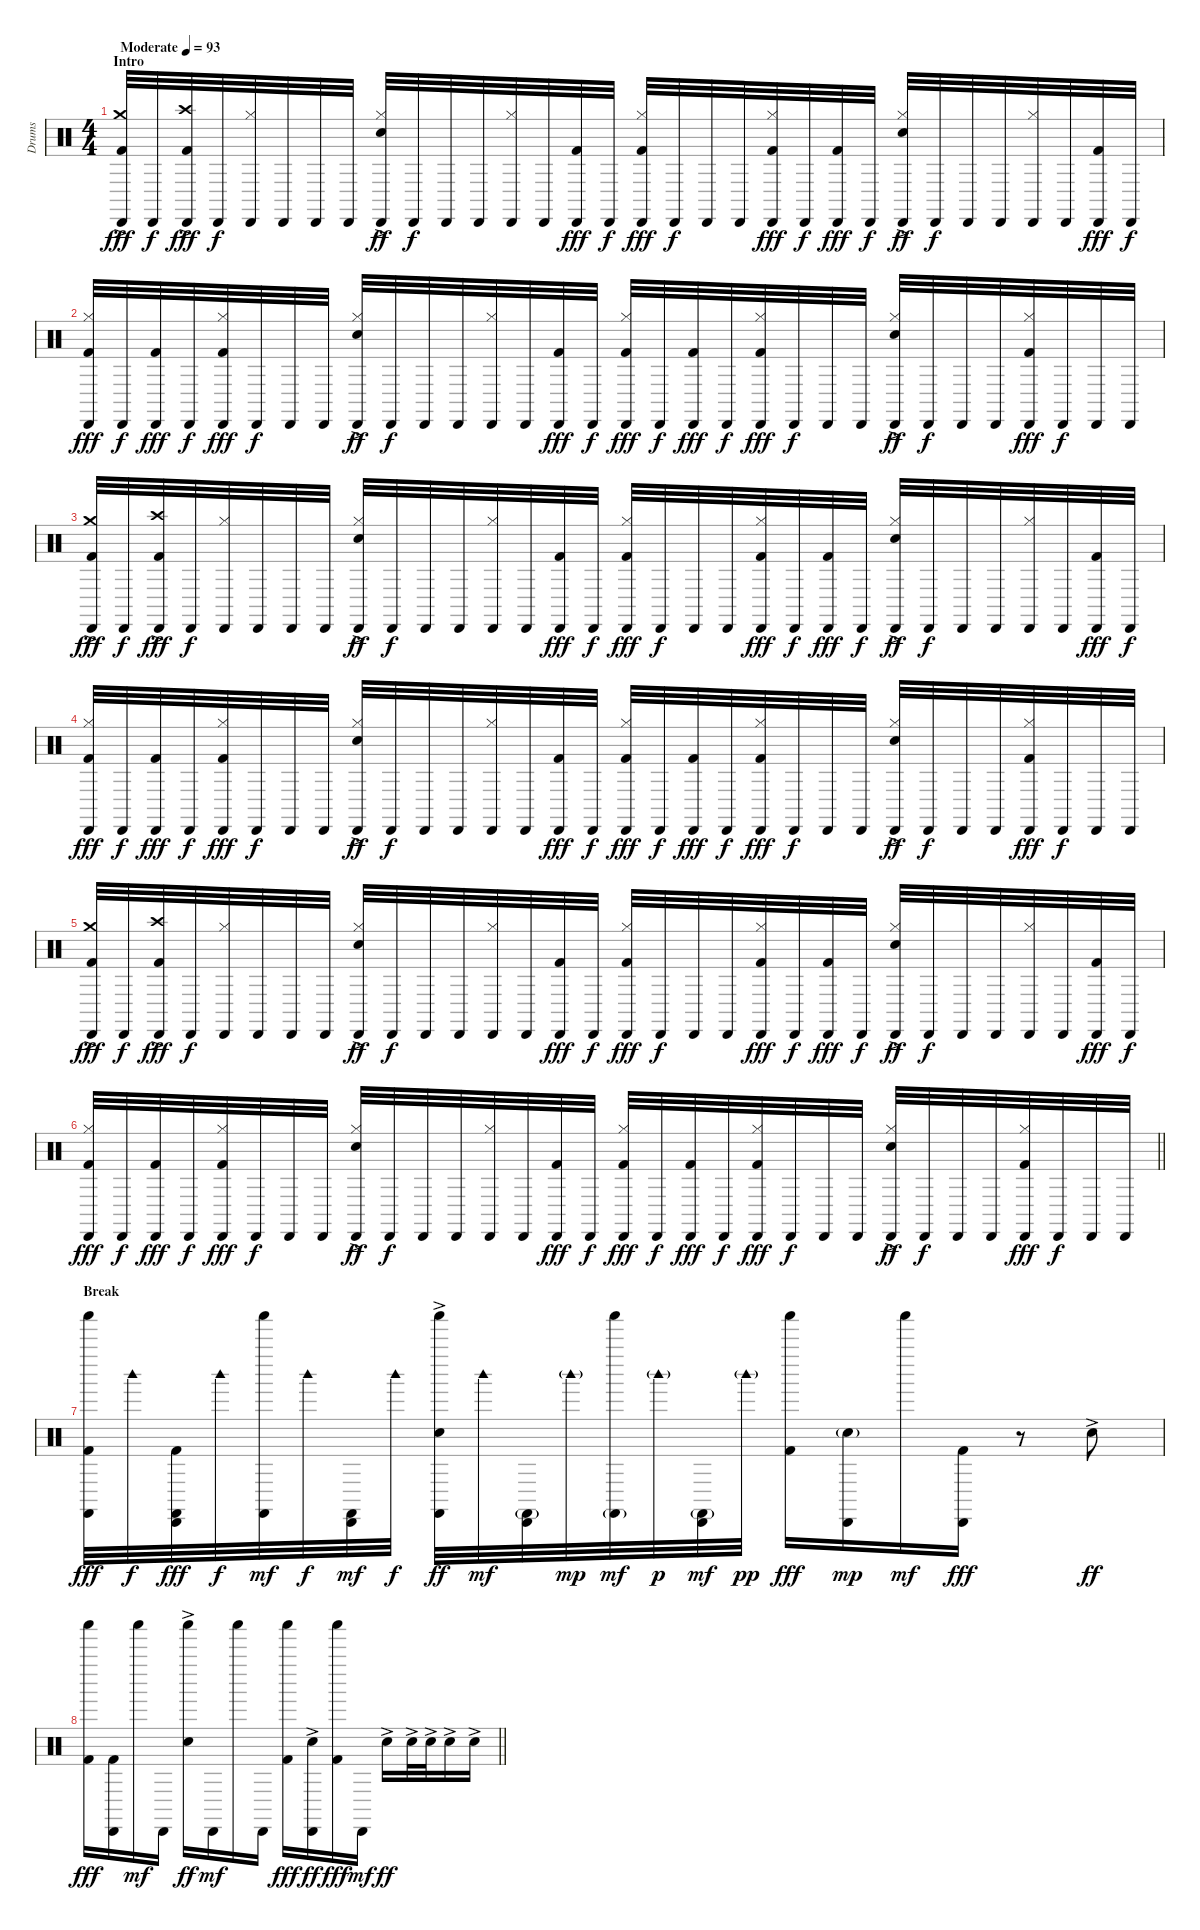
\track ("Drums" "Drums") {instrument percussion}
\staff {score}
\articulation defaults
\ts (4 4)
\section ("" "Intro")
\tempo (93 "Moderate")
\clef neutral
\ks c
("Crash medium (hit)"{ac} "Cabasa (hit)" "Kick (hit) 2").32{dy fff} "Cabasa (hit)".32{dy f} ("Crash high (hit)"{ac} "Cabasa (hit)" "Kick (hit) 2").32{dy fff} "Cabasa (hit)".32{dy f} ("Cabasa (hit)" "Hi-Hat (closed)").32 "Cabasa (hit)".32 "Cabasa (hit)".32 "Cabasa (hit)".32 ("Cabasa (hit)" "Hi-Hat (closed)" "Electric Snare (hit)"{ac}).32{dy ff} "Cabasa (hit)".32{dy f} "Cabasa (hit)".32 "Cabasa (hit)".32 ("Cabasa (hit)" "Hi-Hat (closed)").32 "Cabasa (hit)".32 ("Cabasa (hit)" "Kick (hit) 2").32{dy fff} "Cabasa (hit)".32{dy f} ("Cabasa (hit)" "Hi-Hat (closed)" "Kick (hit) 2").32{dy fff} "Cabasa (hit)".32{dy f} "Cabasa (hit)".32 "Cabasa (hit)".32 ("Cabasa (hit)" "Hi-Hat (closed)" "Kick (hit) 2").32{dy fff} "Cabasa (hit)".32{dy f} ("Cabasa (hit)" "Kick (hit) 2").32{dy fff} "Cabasa (hit)".32{dy f} ("Cabasa (hit)" "Hi-Hat (closed)" "Electric Snare (hit)"{ac}).32{dy ff} "Cabasa (hit)".32{dy f} "Cabasa (hit)".32 "Cabasa (hit)".32 ("Cabasa (hit)" "Hi-Hat (closed)").32 "Cabasa (hit)".32 ("Cabasa (hit)" "Kick (hit) 2").32{dy fff} "Cabasa (hit)".32{dy f} |
("Cabasa (hit)" "Hi-Hat (closed)" "Kick (hit) 2").32{dy fff} "Cabasa (hit)".32{dy f} ("Cabasa (hit)" "Kick (hit) 2").32{dy fff} "Cabasa (hit)".32{dy f} ("Cabasa (hit)" "Hi-Hat (closed)" "Kick (hit) 2").32{dy fff} "Cabasa (hit)".32{dy f} "Cabasa (hit)".32 "Cabasa (hit)".32 ("Cabasa (hit)" "Hi-Hat (closed)" "Electric Snare (hit)"{ac}).32{dy ff} "Cabasa (hit)".32{dy f} "Cabasa (hit)".32 "Cabasa (hit)".32 ("Cabasa (hit)" "Hi-Hat (closed)").32 "Cabasa (hit)".32 ("Cabasa (hit)" "Kick (hit) 2").32{dy fff} "Cabasa (hit)".32{dy f} ("Cabasa (hit)" "Hi-Hat (closed)" "Kick (hit) 2").32{dy fff} "Cabasa (hit)".32{dy f} ("Cabasa (hit)" "Kick (hit) 2").32{dy fff} "Cabasa (hit)".32{dy f} ("Cabasa (hit)" "Hi-Hat (closed)" "Kick (hit) 2").32{dy fff} "Cabasa (hit)".32{dy f} "Cabasa (hit)".32 "Cabasa (hit)".32 ("Cabasa (hit)" "Hi-Hat (closed)" "Electric Snare (hit)"{ac}).32{dy ff} "Cabasa (hit)".32{dy f} "Cabasa (hit)".32 "Cabasa (hit)".32 ("Cabasa (hit)" "Hi-Hat (closed)" "Kick (hit) 2").32{dy fff} "Cabasa (hit)".32{dy f} "Cabasa (hit)".32 "Cabasa (hit)".32 |
("Crash medium (hit)"{ac} "Cabasa (hit)" "Kick (hit) 2").32{dy fff} "Cabasa (hit)".32{dy f} ("Crash high (hit)"{ac} "Cabasa (hit)" "Kick (hit) 2").32{dy fff} "Cabasa (hit)".32{dy f} ("Cabasa (hit)" "Hi-Hat (closed)").32 "Cabasa (hit)".32 "Cabasa (hit)".32 "Cabasa (hit)".32 ("Cabasa (hit)" "Hi-Hat (closed)" "Electric Snare (hit)"{ac}).32{dy ff} "Cabasa (hit)".32{dy f} "Cabasa (hit)".32 "Cabasa (hit)".32 ("Cabasa (hit)" "Hi-Hat (closed)").32 "Cabasa (hit)".32 ("Cabasa (hit)" "Kick (hit) 2").32{dy fff} "Cabasa (hit)".32{dy f} ("Cabasa (hit)" "Hi-Hat (closed)" "Kick (hit) 2").32{dy fff} "Cabasa (hit)".32{dy f} "Cabasa (hit)".32 "Cabasa (hit)".32 ("Cabasa (hit)" "Hi-Hat (closed)" "Kick (hit) 2").32{dy fff} "Cabasa (hit)".32{dy f} ("Cabasa (hit)" "Kick (hit) 2").32{dy fff} "Cabasa (hit)".32{dy f} ("Cabasa (hit)" "Hi-Hat (closed)" "Electric Snare (hit)"{ac}).32{dy ff} "Cabasa (hit)".32{dy f} "Cabasa (hit)".32 "Cabasa (hit)".32 ("Cabasa (hit)" "Hi-Hat (closed)").32 "Cabasa (hit)".32 ("Cabasa (hit)" "Kick (hit) 2").32{dy fff} "Cabasa (hit)".32{dy f} |
("Cabasa (hit)" "Hi-Hat (closed)" "Kick (hit) 2").32{dy fff} "Cabasa (hit)".32{dy f} ("Cabasa (hit)" "Kick (hit) 2").32{dy fff} "Cabasa (hit)".32{dy f} ("Cabasa (hit)" "Hi-Hat (closed)" "Kick (hit) 2").32{dy fff} "Cabasa (hit)".32{dy f} "Cabasa (hit)".32 "Cabasa (hit)".32 ("Cabasa (hit)" "Hi-Hat (closed)" "Electric Snare (hit)"{ac}).32{dy ff} "Cabasa (hit)".32{dy f} "Cabasa (hit)".32 "Cabasa (hit)".32 ("Cabasa (hit)" "Hi-Hat (closed)").32 "Cabasa (hit)".32 ("Cabasa (hit)" "Kick (hit) 2").32{dy fff} "Cabasa (hit)".32{dy f} ("Cabasa (hit)" "Hi-Hat (closed)" "Kick (hit) 2").32{dy fff} "Cabasa (hit)".32{dy f} ("Cabasa (hit)" "Kick (hit) 2").32{dy fff} "Cabasa (hit)".32{dy f} ("Cabasa (hit)" "Hi-Hat (closed)" "Kick (hit) 2").32{dy fff} "Cabasa (hit)".32{dy f} "Cabasa (hit)".32 "Cabasa (hit)".32 ("Cabasa (hit)" "Hi-Hat (closed)" "Electric Snare (hit)"{ac}).32{dy ff} "Cabasa (hit)".32{dy f} "Cabasa (hit)".32 "Cabasa (hit)".32 ("Cabasa (hit)" "Hi-Hat (closed)" "Kick (hit) 2").32{dy fff} "Cabasa (hit)".32{dy f} "Cabasa (hit)".32 "Cabasa (hit)".32 |
("Crash medium (hit)"{ac} "Cabasa (hit)" "Kick (hit) 2").32{dy fff} "Cabasa (hit)".32{dy f} ("Crash high (hit)"{ac} "Cabasa (hit)" "Kick (hit) 2").32{dy fff} "Cabasa (hit)".32{dy f} ("Cabasa (hit)" "Hi-Hat (closed)").32 "Cabasa (hit)".32 "Cabasa (hit)".32 "Cabasa (hit)".32 ("Cabasa (hit)" "Hi-Hat (closed)" "Electric Snare (hit)"{ac}).32{dy ff} "Cabasa (hit)".32{dy f} "Cabasa (hit)".32 "Cabasa (hit)".32 ("Cabasa (hit)" "Hi-Hat (closed)").32 "Cabasa (hit)".32 ("Cabasa (hit)" "Kick (hit) 2").32{dy fff} "Cabasa (hit)".32{dy f} ("Cabasa (hit)" "Hi-Hat (closed)" "Kick (hit) 2").32{dy fff} "Cabasa (hit)".32{dy f} "Cabasa (hit)".32 "Cabasa (hit)".32 ("Cabasa (hit)" "Hi-Hat (closed)" "Kick (hit) 2").32{dy fff} "Cabasa (hit)".32{dy f} ("Cabasa (hit)" "Kick (hit) 2").32{dy fff} "Cabasa (hit)".32{dy f} ("Cabasa (hit)" "Hi-Hat (closed)" "Electric Snare (hit)"{ac}).32{dy ff} "Cabasa (hit)".32{dy f} "Cabasa (hit)".32 "Cabasa (hit)".32 ("Cabasa (hit)" "Hi-Hat (closed)").32 "Cabasa (hit)".32 ("Cabasa (hit)" "Kick (hit) 2").32{dy fff} "Cabasa (hit)".32{dy f} |
\barLineRight lightlight
("Cabasa (hit)" "Hi-Hat (closed)" "Kick (hit) 2").32{dy fff} "Cabasa (hit)".32{dy f} ("Cabasa (hit)" "Kick (hit) 2").32{dy fff} "Cabasa (hit)".32{dy f} ("Cabasa (hit)" "Hi-Hat (closed)" "Kick (hit) 2").32{dy fff} "Cabasa (hit)".32{dy f} "Cabasa (hit)".32 "Cabasa (hit)".32 ("Cabasa (hit)" "Hi-Hat (closed)" "Electric Snare (hit)"{ac}).32{dy ff} "Cabasa (hit)".32{dy f} "Cabasa (hit)".32 "Cabasa (hit)".32 ("Cabasa (hit)" "Hi-Hat (closed)").32 "Cabasa (hit)".32 ("Cabasa (hit)" "Kick (hit) 2").32{dy fff} "Cabasa (hit)".32{dy f} ("Cabasa (hit)" "Hi-Hat (closed)" "Kick (hit) 2").32{dy fff} "Cabasa (hit)".32{dy f} ("Cabasa (hit)" "Kick (hit) 2").32{dy fff} "Cabasa (hit)".32{dy f} ("Cabasa (hit)" "Hi-Hat (closed)" "Kick (hit) 2").32{dy fff} "Cabasa (hit)".32{dy f} "Cabasa (hit)".32 "Cabasa (hit)".32 ("Cabasa (hit)" "Hi-Hat (closed)" "Electric Snare (hit)"{ac}).32{dy ff} "Cabasa (hit)".32{dy f} "Cabasa (hit)".32 "Cabasa (hit)".32 ("Cabasa (hit)" "Hi-Hat (closed)" "Kick (hit) 2").32{dy fff} "Cabasa (hit)".32{dy f} "Cabasa (hit)".32 "Cabasa (hit)".32 |
\section ("" "Break")
("Castanets (hit)" "Shaker (hit)" "Kick (hit) 2").32{dy fff} "Woodblock high (hit)".32{dy f} ("Castanets (hit)" "Cabasa (hit)" "Kick (hit) 2").32{dy fff} "Woodblock high (hit)".32{dy f} ("Castanets (hit)" "Shaker (hit)").32{dy mf} "Woodblock high (hit)".32{dy f} ("Castanets (hit)" "Cabasa (hit)").32{dy mf} "Woodblock high (hit)".32{dy f} ("Castanets (hit)" "Shaker (hit)" "Electric Snare (hit)"{ac}).32{dy ff} "Woodblock high (hit)".32{dy mf} ("Castanets (hit)"{g} "Cabasa (hit)").32 "Woodblock high (hit)"{g}.32{dy mp} ("Castanets (hit)"{g} "Shaker (hit)").32{dy mf} "Woodblock high (hit)"{g}.32{dy p} ("Castanets (hit)"{g} "Cabasa (hit)").32{dy mf} "Woodblock high (hit)"{g}.32{dy pp} ("Shaker (hit)" "Kick (hit) 2").16{dy fff} ("Cabasa (hit)" "Electric Snare (hit)"{g}).16{dy mp} "Shaker (hit)".16{dy mf} ("Cabasa (hit)" "Kick (hit) 2").16{dy fff} r.8 "Electric Snare (hit)"{ac}.8{dy ff} |
\barLineRight lightlight
("Shaker (hit)" "Kick (hit) 2").16{dy fff} ("Cabasa (hit)" "Kick (hit) 2").16 "Shaker (hit)".16{dy mf} "Cabasa (hit)".16 ("Shaker (hit)" "Electric Snare (hit)"{ac}).16{dy ff} "Cabasa (hit)".16{dy mf} "Shaker (hit)".16 "Cabasa (hit)".16 ("Shaker (hit)" "Kick (hit) 2").16{dy fff} ("Cabasa (hit)" "Electric Snare (hit)"{ac}).16{dy ff} ("Shaker (hit)" "Kick (hit) 2").16{dy fff} "Cabasa (hit)".16{dy mf} "Electric Snare (hit)"{ac}.16{dy ff} "Electric Snare (hit)"{ac}.32 "Electric Snare (hit)"{ac}.32 "Electric Snare (hit)"{ac}.16 "Electric Snare (hit)"{ac}.16
